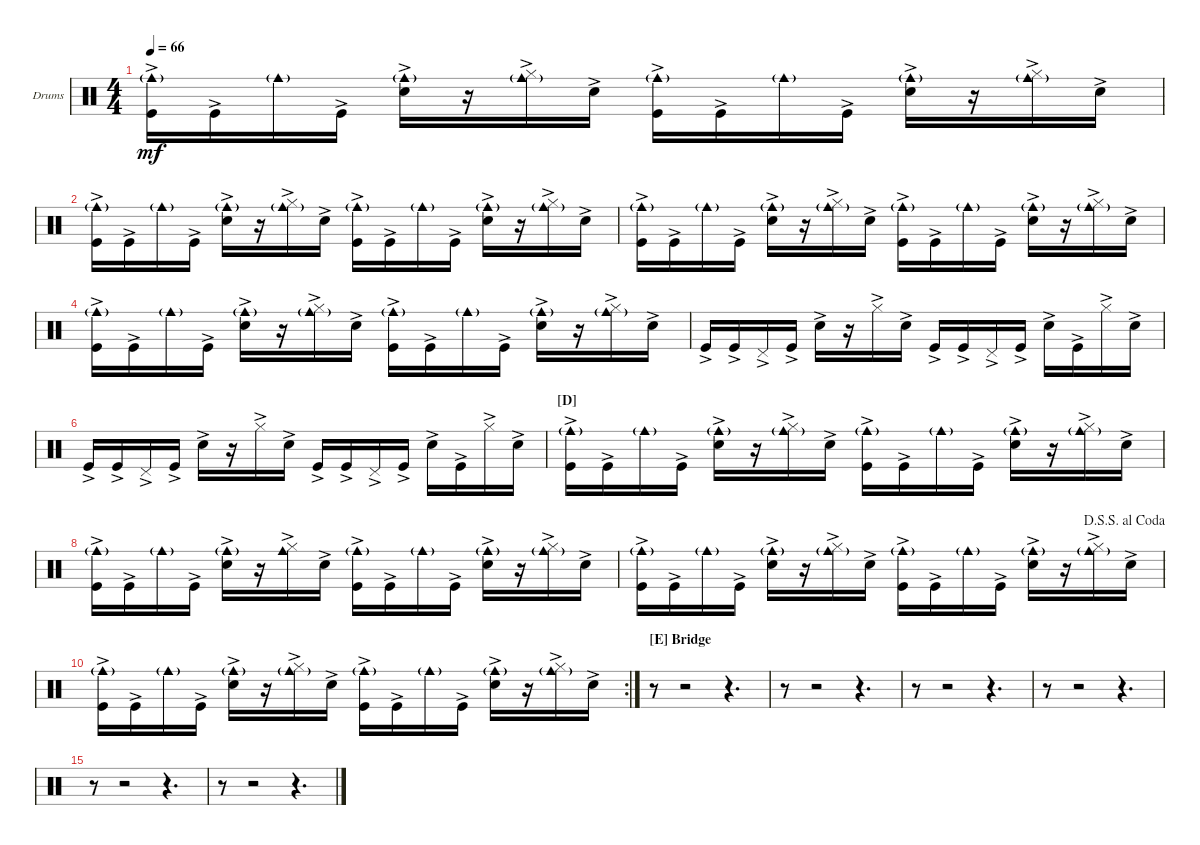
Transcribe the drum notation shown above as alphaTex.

\bracketExtendMode nobrackets
\firstSystemTrackNameOrientation horizontal
\otherSystemsTrackNameOrientation horizontal
\defaultBarNumberDisplay FirstOfSystem
\track ("Drumkit" "Drums") {instrument percussion}
\staff {score}
\articulation defaults
\ts (4 4)
\tempo 66
\clef neutral
\ks c
("Kick (hit)"{ac} "Cowbell medium (hit)"{g}).16{dy mf} "Kick (hit)"{ac}.16 "Cowbell medium (hit)"{g}.16 "Kick (hit)"{ac}.16 ("Snare (hit) 2"{ac} "Cowbell medium (hit)"{g}).16 r.16 ("Hi-Hat (closed)"{ac} "Cowbell medium (hit)"{g}).16 "Snare (hit) 2"{ac}.16 ("Kick (hit)"{ac} "Cowbell medium (hit)"{g}).16 "Kick (hit)"{ac}.16 "Cowbell medium (hit)"{g}.16 "Kick (hit)"{ac}.16 ("Snare (hit) 2"{ac} "Cowbell medium (hit)"{g}).16 r.16 ("Hi-Hat (closed)"{ac} "Cowbell medium (hit)"{g}).16 "Snare (hit) 2"{ac}.16 |
("Kick (hit)"{ac} "Cowbell medium (hit)"{g}).16 "Kick (hit)"{ac}.16 "Cowbell medium (hit)"{g}.16 "Kick (hit)"{ac}.16 ("Snare (hit) 2"{ac} "Cowbell medium (hit)"{g}).16 r.16 ("Hi-Hat (closed)"{ac} "Cowbell medium (hit)"{g}).16 "Snare (hit) 2"{ac}.16 ("Kick (hit)"{ac} "Cowbell medium (hit)"{g}).16 "Kick (hit)"{ac}.16 "Cowbell medium (hit)"{g}.16 "Kick (hit)"{ac}.16 ("Snare (hit) 2"{ac} "Cowbell medium (hit)"{g}).16 r.16 ("Hi-Hat (closed)"{ac} "Cowbell medium (hit)"{g}).16 "Snare (hit) 2"{ac}.16 |
("Kick (hit)"{ac} "Cowbell medium (hit)"{g}).16 "Kick (hit)"{ac}.16 "Cowbell medium (hit)"{g}.16 "Kick (hit)"{ac}.16 ("Snare (hit) 2"{ac} "Cowbell medium (hit)"{g}).16 r.16 ("Hi-Hat (closed)"{ac} "Cowbell medium (hit)"{g}).16 "Snare (hit) 2"{ac}.16 ("Kick (hit)"{ac} "Cowbell medium (hit)"{g}).16 "Kick (hit)"{ac}.16 "Cowbell medium (hit)"{g}.16 "Kick (hit)"{ac}.16 ("Snare (hit) 2"{ac} "Cowbell medium (hit)"{g}).16 r.16 ("Hi-Hat (closed)"{ac} "Cowbell medium (hit)"{g}).16 "Snare (hit) 2"{ac}.16 |
("Kick (hit)"{ac} "Cowbell medium (hit)"{g}).16 "Kick (hit)"{ac}.16 "Cowbell medium (hit)"{g}.16 "Kick (hit)"{ac}.16 ("Snare (hit) 2"{ac} "Cowbell medium (hit)"{g}).16 r.16 ("Hi-Hat (closed)"{ac} "Cowbell medium (hit)"{g}).16 "Snare (hit) 2"{ac}.16 ("Kick (hit)"{ac} "Cowbell medium (hit)"{g}).16 "Kick (hit)"{ac}.16 "Cowbell medium (hit)"{g}.16 "Kick (hit)"{ac}.16 ("Snare (hit) 2"{ac} "Cowbell medium (hit)"{g}).16 r.16 ("Hi-Hat (closed)"{ac} "Cowbell medium (hit)"{g}).16 "Snare (hit) 2"{ac}.16 |
"Kick (hit)"{ac}.16 "Kick (hit)"{ac}.16 "Pedal Hi-Hat (hit)"{ac}.16 "Kick (hit)"{ac}.16 "Snare (hit) 2"{ac}.16 r.16 "Hi-Hat (closed)"{ac}.16 "Snare (hit) 2"{ac}.16 "Kick (hit)"{ac}.16 "Kick (hit)"{ac}.16 "Pedal Hi-Hat (hit)"{ac}.16 "Kick (hit)"{ac}.16 "Snare (hit) 2"{ac}.16 "Kick (hit)"{ac}.16 "Hi-Hat (closed)"{ac}.16 "Snare (hit) 2"{ac}.16 |
"Kick (hit)"{ac}.16 "Kick (hit)"{ac}.16 "Pedal Hi-Hat (hit)"{ac}.16 "Kick (hit)"{ac}.16 "Snare (hit) 2"{ac}.16 r.16 "Hi-Hat (closed)"{ac}.16 "Snare (hit) 2"{ac}.16 "Kick (hit)"{ac}.16 "Kick (hit)"{ac}.16 "Pedal Hi-Hat (hit)"{ac}.16 "Kick (hit)"{ac}.16 "Snare (hit) 2"{ac}.16 "Kick (hit)"{ac}.16 "Hi-Hat (closed)"{ac}.16 "Snare (hit) 2"{ac}.16 |
\section ("D" "")
("Kick (hit)"{ac} "Cowbell medium (hit)"{g}).16 "Kick (hit)"{ac}.16 "Cowbell medium (hit)"{g}.16 "Kick (hit)"{ac}.16 ("Snare (hit) 2"{ac} "Cowbell medium (hit)"{g}).16 r.16 ("Hi-Hat (closed)"{ac} "Cowbell medium (hit)"{g}).16 "Snare (hit) 2"{ac}.16 ("Kick (hit)"{ac} "Cowbell medium (hit)"{g}).16 "Kick (hit)"{ac}.16 "Cowbell medium (hit)"{g}.16 "Kick (hit)"{ac}.16 ("Snare (hit) 2"{ac} "Cowbell medium (hit)"{g}).16 r.16 ("Hi-Hat (closed)"{ac} "Cowbell medium (hit)"{g}).16 "Snare (hit) 2"{ac}.16 |
("Kick (hit)"{ac} "Cowbell medium (hit)"{g}).16 "Kick (hit)"{ac}.16 "Cowbell medium (hit)"{g}.16 "Kick (hit)"{ac}.16 ("Snare (hit) 2"{ac} "Cowbell medium (hit)"{g}).16 r.16 ("Hi-Hat (closed)"{ac} "Cowbell medium (hit)"{ac}).16 "Snare (hit) 2"{ac}.16 ("Kick (hit)"{ac} "Cowbell medium (hit)"{g}).16 "Kick (hit)"{ac}.16 "Cowbell medium (hit)"{g}.16 "Kick (hit)"{ac}.16 ("Snare (hit) 2"{ac} "Cowbell medium (hit)"{g}).16 r.16 ("Hi-Hat (closed)"{ac} "Cowbell medium (hit)"{g}).16 "Snare (hit) 2"{ac}.16 |
\jump dalsegnosegnoalcoda
("Kick (hit)"{ac} "Cowbell medium (hit)"{g}).16 "Kick (hit)"{ac}.16 "Cowbell medium (hit)"{g}.16 "Kick (hit)"{ac}.16 ("Snare (hit) 2"{ac} "Cowbell medium (hit)"{g}).16 r.16 ("Hi-Hat (closed)"{ac} "Cowbell medium (hit)"{g}).16 "Snare (hit) 2"{ac}.16 ("Kick (hit)"{ac} "Cowbell medium (hit)"{g}).16 "Kick (hit)"{ac}.16 "Cowbell medium (hit)"{g}.16 "Kick (hit)"{ac}.16 ("Snare (hit) 2"{ac} "Cowbell medium (hit)"{g}).16 r.16 ("Hi-Hat (closed)"{ac} "Cowbell medium (hit)"{g}).16 "Snare (hit) 2"{ac}.16 |
\rc 2
("Kick (hit)"{ac} "Cowbell medium (hit)"{g}).16 "Kick (hit)"{ac}.16 "Cowbell medium (hit)"{g}.16 "Kick (hit)"{ac}.16 ("Snare (hit) 2"{ac} "Cowbell medium (hit)"{g}).16 r.16 ("Hi-Hat (closed)"{ac} "Cowbell medium (hit)"{g}).16 "Snare (hit) 2"{ac}.16 ("Kick (hit)"{ac} "Cowbell medium (hit)"{g}).16 "Kick (hit)"{ac}.16 "Cowbell medium (hit)"{g}.16 "Kick (hit)"{ac}.16 ("Snare (hit) 2"{ac} "Cowbell medium (hit)"{g}).16 r.16 ("Hi-Hat (closed)"{ac} "Cowbell medium (hit)"{g}).16 "Snare (hit) 2"{ac}.16 |
\section ("E" "Bridge")
r.8 r.2 r.4{d} |
r.8 r.2 r.4{d} |
r.8 r.2 r.4{d} |
r.8 r.2 r.4{d} |
r.8 r.2 r.4{d} |
r.8 r.2 r.4{d}
